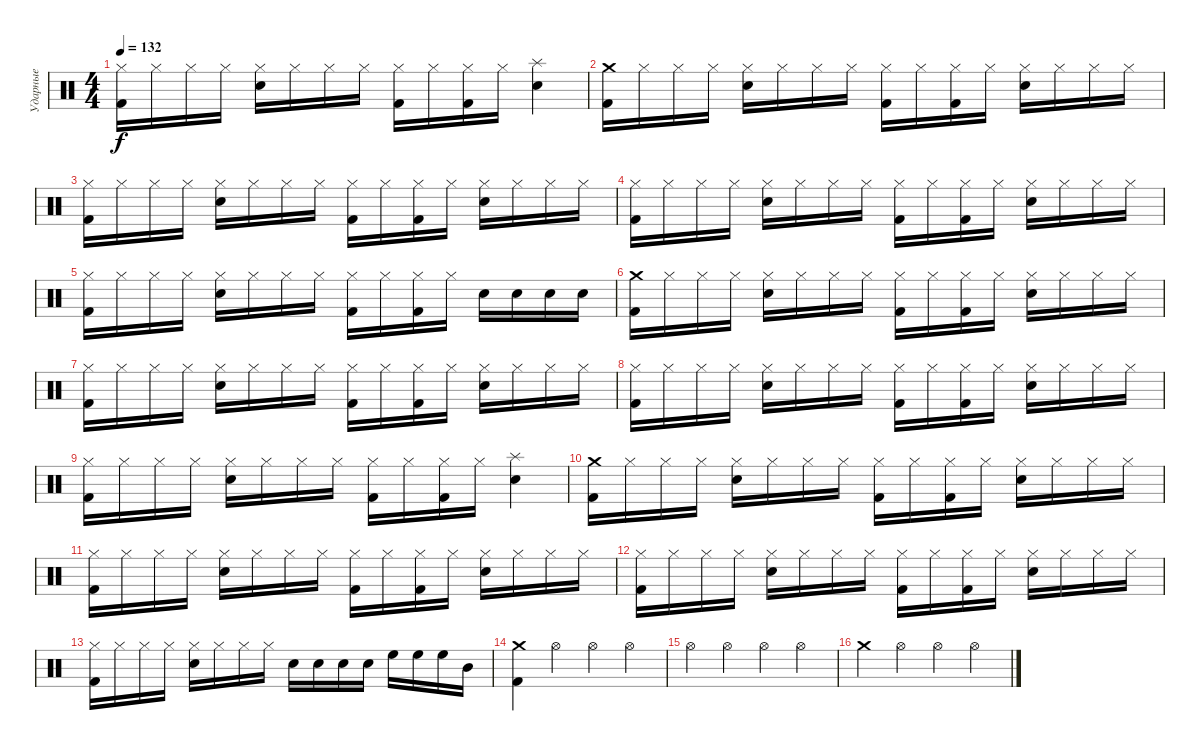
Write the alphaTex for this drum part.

\track ("Ударные" "Ударные") {instrument percussion}
\staff {score}
\articulation defaults
\ts (4 4)
\tempo 132
\clef neutral
\ks c
("Hi-Hat (closed)" "Kick (hit) 2").16{dy f} "Hi-Hat (closed)".16 "Hi-Hat (closed)".16 "Hi-Hat (closed)".16 ("Hi-Hat (closed)" "Electric Snare (hit)").16 "Hi-Hat (closed)".16 "Hi-Hat (closed)".16 "Hi-Hat (closed)".16 ("Hi-Hat (closed)" "Kick (hit) 2").16 "Hi-Hat (closed)".16 ("Hi-Hat (closed)" "Kick (hit) 2").16 "Hi-Hat (closed)".16 ("Splash (hit)" "Electric Snare (hit)").4 |
("Crash medium (hit)" "Kick (hit) 2").16 "Hi-Hat (closed)".16 "Hi-Hat (closed)".16 "Hi-Hat (closed)".16 ("Hi-Hat (closed)" "Electric Snare (hit)").16 "Hi-Hat (closed)".16 "Hi-Hat (closed)".16 "Hi-Hat (closed)".16 ("Hi-Hat (closed)" "Kick (hit) 2").16 "Hi-Hat (closed)".16 ("Hi-Hat (closed)" "Kick (hit) 2").16 "Hi-Hat (closed)".16 ("Hi-Hat (closed)" "Electric Snare (hit)").16 "Hi-Hat (closed)".16 "Hi-Hat (closed)".16 "Hi-Hat (closed)".16 |
("Hi-Hat (closed)" "Kick (hit) 2").16 "Hi-Hat (closed)".16 "Hi-Hat (closed)".16 "Hi-Hat (closed)".16 ("Hi-Hat (closed)" "Electric Snare (hit)").16 "Hi-Hat (closed)".16 "Hi-Hat (closed)".16 "Hi-Hat (closed)".16 ("Hi-Hat (closed)" "Kick (hit) 2").16 "Hi-Hat (closed)".16 ("Hi-Hat (closed)" "Kick (hit) 2").16 "Hi-Hat (closed)".16 ("Hi-Hat (closed)" "Electric Snare (hit)").16 "Hi-Hat (closed)".16 "Hi-Hat (closed)".16 "Hi-Hat (closed)".16 |
("Hi-Hat (closed)" "Kick (hit) 2").16 "Hi-Hat (closed)".16 "Hi-Hat (closed)".16 "Hi-Hat (closed)".16 ("Hi-Hat (closed)" "Electric Snare (hit)").16 "Hi-Hat (closed)".16 "Hi-Hat (closed)".16 "Hi-Hat (closed)".16 ("Hi-Hat (closed)" "Kick (hit) 2").16 "Hi-Hat (closed)".16 ("Hi-Hat (closed)" "Kick (hit) 2").16 "Hi-Hat (closed)".16 ("Hi-Hat (closed)" "Electric Snare (hit)").16 "Hi-Hat (closed)".16 "Hi-Hat (closed)".16 "Hi-Hat (closed)".16 |
("Hi-Hat (closed)" "Kick (hit) 2").16 "Hi-Hat (closed)".16 "Hi-Hat (closed)".16 "Hi-Hat (closed)".16 ("Hi-Hat (closed)" "Electric Snare (hit)").16 "Hi-Hat (closed)".16 "Hi-Hat (closed)".16 "Hi-Hat (closed)".16 ("Hi-Hat (closed)" "Kick (hit) 2").16 "Hi-Hat (closed)".16 ("Hi-Hat (closed)" "Kick (hit) 2").16 "Hi-Hat (closed)".16 "Electric Snare (hit)".16 "Electric Snare (hit)".16 "Electric Snare (hit)".16 "Electric Snare (hit)".16 |
("Crash medium (hit)" "Kick (hit) 2").16 "Hi-Hat (closed)".16 "Hi-Hat (closed)".16 "Hi-Hat (closed)".16 ("Hi-Hat (closed)" "Electric Snare (hit)").16 "Hi-Hat (closed)".16 "Hi-Hat (closed)".16 "Hi-Hat (closed)".16 ("Hi-Hat (closed)" "Kick (hit) 2").16 "Hi-Hat (closed)".16 ("Hi-Hat (closed)" "Kick (hit) 2").16 "Hi-Hat (closed)".16 ("Hi-Hat (closed)" "Electric Snare (hit)").16 "Hi-Hat (closed)".16 "Hi-Hat (closed)".16 "Hi-Hat (closed)".16 |
("Hi-Hat (closed)" "Kick (hit) 2").16 "Hi-Hat (closed)".16 "Hi-Hat (closed)".16 "Hi-Hat (closed)".16 ("Hi-Hat (closed)" "Electric Snare (hit)").16 "Hi-Hat (closed)".16 "Hi-Hat (closed)".16 "Hi-Hat (closed)".16 ("Hi-Hat (closed)" "Kick (hit) 2").16 "Hi-Hat (closed)".16 ("Hi-Hat (closed)" "Kick (hit) 2").16 "Hi-Hat (closed)".16 ("Hi-Hat (closed)" "Electric Snare (hit)").16 "Hi-Hat (closed)".16 "Hi-Hat (closed)".16 "Hi-Hat (closed)".16 |
("Hi-Hat (closed)" "Kick (hit) 2").16 "Hi-Hat (closed)".16 "Hi-Hat (closed)".16 "Hi-Hat (closed)".16 ("Hi-Hat (closed)" "Electric Snare (hit)").16 "Hi-Hat (closed)".16 "Hi-Hat (closed)".16 "Hi-Hat (closed)".16 ("Hi-Hat (closed)" "Kick (hit) 2").16 "Hi-Hat (closed)".16 ("Hi-Hat (closed)" "Kick (hit) 2").16 "Hi-Hat (closed)".16 ("Hi-Hat (closed)" "Electric Snare (hit)").16 "Hi-Hat (closed)".16 "Hi-Hat (closed)".16 "Hi-Hat (closed)".16 |
("Hi-Hat (closed)" "Kick (hit) 2").16 "Hi-Hat (closed)".16 "Hi-Hat (closed)".16 "Hi-Hat (closed)".16 ("Hi-Hat (closed)" "Electric Snare (hit)").16 "Hi-Hat (closed)".16 "Hi-Hat (closed)".16 "Hi-Hat (closed)".16 ("Hi-Hat (closed)" "Kick (hit) 2").16 "Hi-Hat (closed)".16 ("Hi-Hat (closed)" "Kick (hit) 2").16 "Hi-Hat (closed)".16 ("Splash (hit)" "Electric Snare (hit)").4 |
("Crash medium (hit)" "Kick (hit) 2").16 "Hi-Hat (closed)".16 "Hi-Hat (closed)".16 "Hi-Hat (closed)".16 ("Hi-Hat (closed)" "Electric Snare (hit)").16 "Hi-Hat (closed)".16 "Hi-Hat (closed)".16 "Hi-Hat (closed)".16 ("Hi-Hat (closed)" "Kick (hit) 2").16 "Hi-Hat (closed)".16 ("Hi-Hat (closed)" "Kick (hit) 2").16 "Hi-Hat (closed)".16 ("Hi-Hat (closed)" "Electric Snare (hit)").16 "Hi-Hat (closed)".16 "Hi-Hat (closed)".16 "Hi-Hat (closed)".16 |
("Hi-Hat (closed)" "Kick (hit) 2").16 "Hi-Hat (closed)".16 "Hi-Hat (closed)".16 "Hi-Hat (closed)".16 ("Hi-Hat (closed)" "Electric Snare (hit)").16 "Hi-Hat (closed)".16 "Hi-Hat (closed)".16 "Hi-Hat (closed)".16 ("Hi-Hat (closed)" "Kick (hit) 2").16 "Hi-Hat (closed)".16 ("Hi-Hat (closed)" "Kick (hit) 2").16 "Hi-Hat (closed)".16 ("Hi-Hat (closed)" "Electric Snare (hit)").16 "Hi-Hat (closed)".16 "Hi-Hat (closed)".16 "Hi-Hat (closed)".16 |
("Hi-Hat (closed)" "Kick (hit) 2").16 "Hi-Hat (closed)".16 "Hi-Hat (closed)".16 "Hi-Hat (closed)".16 ("Hi-Hat (closed)" "Electric Snare (hit)").16 "Hi-Hat (closed)".16 "Hi-Hat (closed)".16 "Hi-Hat (closed)".16 ("Hi-Hat (closed)" "Kick (hit) 2").16 "Hi-Hat (closed)".16 ("Hi-Hat (closed)" "Kick (hit) 2").16 "Hi-Hat (closed)".16 ("Hi-Hat (closed)" "Electric Snare (hit)").16 "Hi-Hat (closed)".16 "Hi-Hat (closed)".16 "Hi-Hat (closed)".16 |
("Hi-Hat (closed)" "Kick (hit) 2").16 "Hi-Hat (closed)".16 "Hi-Hat (closed)".16 "Hi-Hat (closed)".16 ("Hi-Hat (closed)" "Electric Snare (hit)").16 "Hi-Hat (closed)".16 "Hi-Hat (closed)".16 "Hi-Hat (closed)".16 "Electric Snare (hit)".16 "Electric Snare (hit)".16 "Electric Snare (hit)".16 "Electric Snare (hit)".16 "High Floor Tom (hit)".16 "High Floor Tom (hit)".16 "High Floor Tom (hit)".16 "Mid Tom (hit)".16 |
("Crash medium (hit)" "Kick (hit) 2").4 "Hi-Hat (open)".4 "Hi-Hat (open)".4 "Hi-Hat (open)".4 |
"Hi-Hat (open)".4 "Hi-Hat (open)".4 "Hi-Hat (open)".4 "Hi-Hat (open)".4 |
"Crash medium (hit)".4 "Hi-Hat (open)".4 "Hi-Hat (open)".4 "Hi-Hat (open)".4
